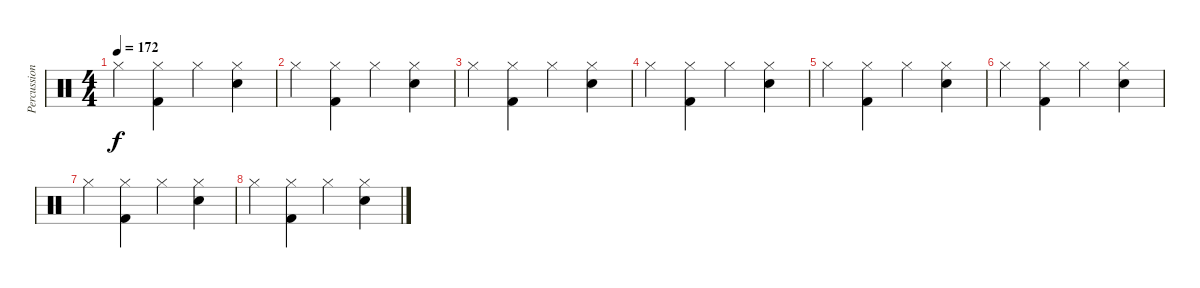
\track ("Percussion" "Percussion") {instrument percussion}
\staff {score}
\articulation defaults
\ts (4 4)
\tempo 172
\clef neutral
\ks c "Hi-Hat (closed)".4{dy f}
("Hi-Hat (closed)" "Kick (hit) 2").4 "Hi-Hat (closed)".4 ("Hi-Hat (closed)" "Snare (hit) 2").4 |
"Hi-Hat (closed)".4 ("Hi-Hat (closed)" "Kick (hit) 2").4 "Hi-Hat (closed)".4 ("Hi-Hat (closed)" "Snare (hit) 2").4 |
"Hi-Hat (closed)".4 ("Hi-Hat (closed)" "Kick (hit) 2").4 "Hi-Hat (closed)".4 ("Hi-Hat (closed)" "Snare (hit) 2").4 |
"Hi-Hat (closed)".4 ("Hi-Hat (closed)" "Kick (hit) 2").4 "Hi-Hat (closed)".4 ("Hi-Hat (closed)" "Snare (hit) 2").4 |
"Hi-Hat (closed)".4 ("Hi-Hat (closed)" "Kick (hit) 2").4 "Hi-Hat (closed)".4 ("Hi-Hat (closed)" "Snare (hit) 2").4 |
"Hi-Hat (closed)".4 ("Hi-Hat (closed)" "Kick (hit) 2").4 "Hi-Hat (closed)".4 ("Hi-Hat (closed)" "Snare (hit) 2").4 |
"Hi-Hat (closed)".4 ("Hi-Hat (closed)" "Kick (hit) 2").4 "Hi-Hat (closed)".4 ("Hi-Hat (closed)" "Snare (hit) 2").4 |
"Hi-Hat (closed)".4 ("Hi-Hat (closed)" "Kick (hit) 2").4 "Hi-Hat (closed)".4 ("Hi-Hat (closed)" "Snare (hit) 2").4
